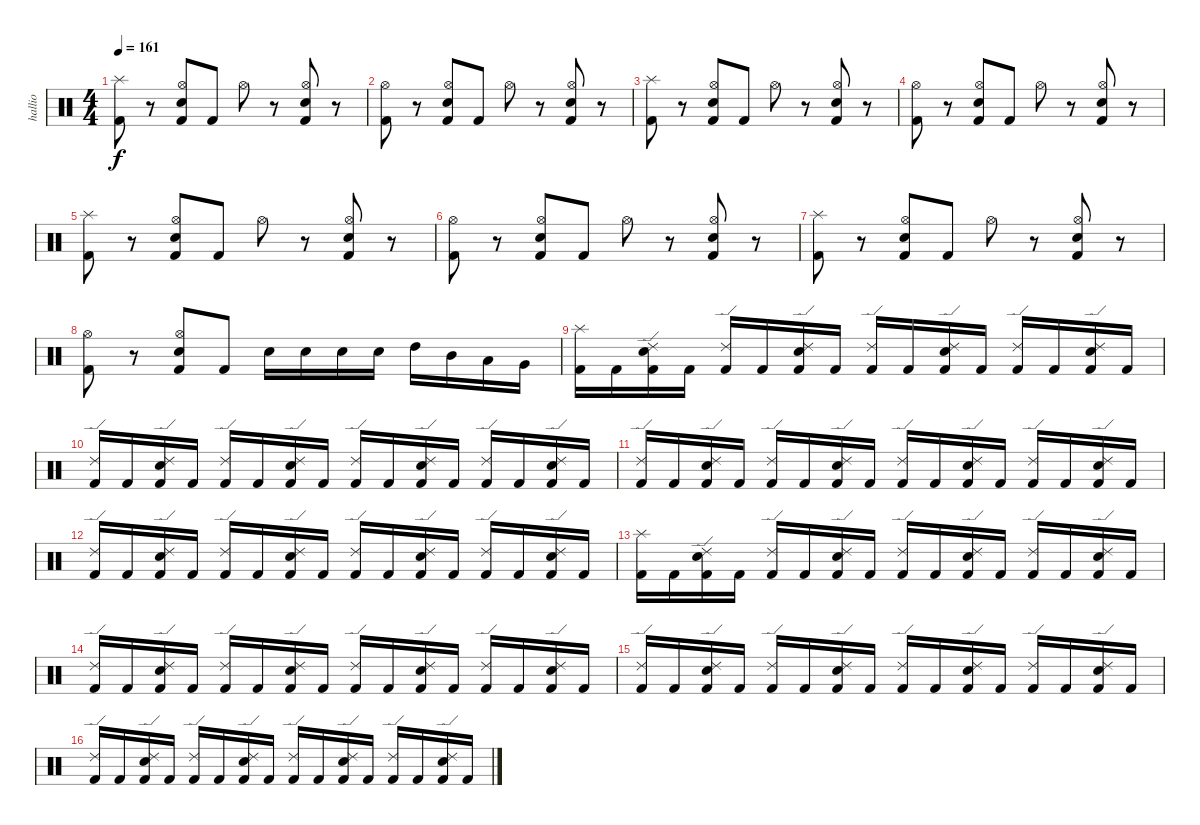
\track ("hallio" "hallio") {instrument percussion}
\staff {score}
\articulation defaults
\ts (4 4)
\tempo 161
\clef neutral
\ks c
("Kick (hit) 2" "Splash (hit)").8{dy f} r.8 ("Kick (hit) 2" "Hi-Hat (open)" "Snare (hit) 2").8 "Kick (hit) 2".8 "Hi-Hat (open)".8 r.8 ("Kick (hit) 2" "Hi-Hat (open)" "Snare (hit) 2").8 r.8 |
("Kick (hit) 2" "Hi-Hat (open)").8 r.8 ("Kick (hit) 2" "Hi-Hat (open)" "Snare (hit) 2").8 "Kick (hit) 2".8 "Hi-Hat (open)".8 r.8 ("Kick (hit) 2" "Hi-Hat (open)" "Snare (hit) 2").8 r.8 |
("Kick (hit) 2" "Splash (hit)").8 r.8 ("Kick (hit) 2" "Hi-Hat (open)" "Snare (hit) 2").8 "Kick (hit) 2".8 "Hi-Hat (open)".8 r.8 ("Kick (hit) 2" "Hi-Hat (open)" "Snare (hit) 2").8 r.8 |
("Kick (hit) 2" "Hi-Hat (open)").8 r.8 ("Kick (hit) 2" "Hi-Hat (open)" "Snare (hit) 2").8 "Kick (hit) 2".8 "Hi-Hat (open)".8 r.8 ("Kick (hit) 2" "Hi-Hat (open)" "Snare (hit) 2").8 r.8 |
("Kick (hit) 2" "Splash (hit)").8 r.8 ("Kick (hit) 2" "Hi-Hat (open)" "Snare (hit) 2").8 "Kick (hit) 2".8 "Hi-Hat (open)".8 r.8 ("Kick (hit) 2" "Hi-Hat (open)" "Snare (hit) 2").8 r.8 |
("Kick (hit) 2" "Hi-Hat (open)").8 r.8 ("Kick (hit) 2" "Hi-Hat (open)" "Snare (hit) 2").8 "Kick (hit) 2".8 "Hi-Hat (open)".8 r.8 ("Kick (hit) 2" "Hi-Hat (open)" "Snare (hit) 2").8 r.8 |
("Kick (hit) 2" "Splash (hit)").8 r.8 ("Kick (hit) 2" "Hi-Hat (open)" "Snare (hit) 2").8 "Kick (hit) 2".8 "Hi-Hat (open)".8 r.8 ("Kick (hit) 2" "Hi-Hat (open)" "Snare (hit) 2").8 r.8 |
("Kick (hit) 2" "Hi-Hat (open)").8 r.8 ("Kick (hit) 2" "Hi-Hat (open)" "Snare (hit) 2").8 "Kick (hit) 2".8 "Snare (hit) 2".16 "Snare (hit) 2".16 "Snare (hit) 2".16 "Snare (hit) 2".16 "High Tom (hit)".16 "Mid Tom (hit)".16 "Low Tom (hit)".16 "Very Low Tom (hit)".16 |
("Kick (hit) 2" "Splash (hit)").16 "Kick (hit) 2".16 ("Kick (hit) 2" "Snare (hit) 2" "Ride (edge) 2").16 "Kick (hit) 2".16 ("Kick (hit) 2" "Ride (edge) 2").16 "Kick (hit) 2".16 ("Kick (hit) 2" "Snare (hit) 2" "Ride (edge) 2").16 "Kick (hit) 2".16 ("Kick (hit) 2" "Ride (edge) 2").16 "Kick (hit) 2".16 ("Kick (hit) 2" "Snare (hit) 2" "Ride (edge) 2").16 "Kick (hit) 2".16 ("Kick (hit) 2" "Ride (edge) 2").16 "Kick (hit) 2".16 ("Kick (hit) 2" "Snare (hit) 2" "Ride (edge) 2").16 "Kick (hit) 2".16 |
("Kick (hit) 2" "Ride (edge) 2").16 "Kick (hit) 2".16 ("Kick (hit) 2" "Snare (hit) 2" "Ride (edge) 2").16 "Kick (hit) 2".16 ("Kick (hit) 2" "Ride (edge) 2").16 "Kick (hit) 2".16 ("Kick (hit) 2" "Snare (hit) 2" "Ride (edge) 2").16 "Kick (hit) 2".16 ("Kick (hit) 2" "Ride (edge) 2").16 "Kick (hit) 2".16 ("Kick (hit) 2" "Snare (hit) 2" "Ride (edge) 2").16 "Kick (hit) 2".16 ("Kick (hit) 2" "Ride (edge) 2").16 "Kick (hit) 2".16 ("Kick (hit) 2" "Snare (hit) 2" "Ride (edge) 2").16 "Kick (hit) 2".16 |
("Kick (hit) 2" "Ride (edge) 2").16 "Kick (hit) 2".16 ("Kick (hit) 2" "Snare (hit) 2" "Ride (edge) 2").16 "Kick (hit) 2".16 ("Kick (hit) 2" "Ride (edge) 2").16 "Kick (hit) 2".16 ("Kick (hit) 2" "Snare (hit) 2" "Ride (edge) 2").16 "Kick (hit) 2".16 ("Kick (hit) 2" "Ride (edge) 2").16 "Kick (hit) 2".16 ("Kick (hit) 2" "Snare (hit) 2" "Ride (edge) 2").16 "Kick (hit) 2".16 ("Kick (hit) 2" "Ride (edge) 2").16 "Kick (hit) 2".16 ("Kick (hit) 2" "Snare (hit) 2" "Ride (edge) 2").16 "Kick (hit) 2".16 |
("Kick (hit) 2" "Ride (edge) 2").16 "Kick (hit) 2".16 ("Kick (hit) 2" "Snare (hit) 2" "Ride (edge) 2").16 "Kick (hit) 2".16 ("Kick (hit) 2" "Ride (edge) 2").16 "Kick (hit) 2".16 ("Kick (hit) 2" "Snare (hit) 2" "Ride (edge) 2").16 "Kick (hit) 2".16 ("Kick (hit) 2" "Ride (edge) 2").16 "Kick (hit) 2".16 ("Kick (hit) 2" "Snare (hit) 2" "Ride (edge) 2").16 "Kick (hit) 2".16 ("Kick (hit) 2" "Ride (edge) 2").16 "Kick (hit) 2".16 ("Kick (hit) 2" "Snare (hit) 2" "Ride (edge) 2").16 "Kick (hit) 2".16 |
("Kick (hit) 2" "Splash (hit)").16 "Kick (hit) 2".16 ("Kick (hit) 2" "Snare (hit) 2" "Ride (edge) 2").16 "Kick (hit) 2".16 ("Kick (hit) 2" "Ride (edge) 2").16 "Kick (hit) 2".16 ("Kick (hit) 2" "Snare (hit) 2" "Ride (edge) 2").16 "Kick (hit) 2".16 ("Kick (hit) 2" "Ride (edge) 2").16 "Kick (hit) 2".16 ("Kick (hit) 2" "Snare (hit) 2" "Ride (edge) 2").16 "Kick (hit) 2".16 ("Kick (hit) 2" "Ride (edge) 2").16 "Kick (hit) 2".16 ("Kick (hit) 2" "Snare (hit) 2" "Ride (edge) 2").16 "Kick (hit) 2".16 |
("Kick (hit) 2" "Ride (edge) 2").16 "Kick (hit) 2".16 ("Kick (hit) 2" "Snare (hit) 2" "Ride (edge) 2").16 "Kick (hit) 2".16 ("Kick (hit) 2" "Ride (edge) 2").16 "Kick (hit) 2".16 ("Kick (hit) 2" "Snare (hit) 2" "Ride (edge) 2").16 "Kick (hit) 2".16 ("Kick (hit) 2" "Ride (edge) 2").16 "Kick (hit) 2".16 ("Kick (hit) 2" "Snare (hit) 2" "Ride (edge) 2").16 "Kick (hit) 2".16 ("Kick (hit) 2" "Ride (edge) 2").16 "Kick (hit) 2".16 ("Kick (hit) 2" "Snare (hit) 2" "Ride (edge) 2").16 "Kick (hit) 2".16 |
("Kick (hit) 2" "Ride (edge) 2").16 "Kick (hit) 2".16 ("Kick (hit) 2" "Snare (hit) 2" "Ride (edge) 2").16 "Kick (hit) 2".16 ("Kick (hit) 2" "Ride (edge) 2").16 "Kick (hit) 2".16 ("Kick (hit) 2" "Snare (hit) 2" "Ride (edge) 2").16 "Kick (hit) 2".16 ("Kick (hit) 2" "Ride (edge) 2").16 "Kick (hit) 2".16 ("Kick (hit) 2" "Snare (hit) 2" "Ride (edge) 2").16 "Kick (hit) 2".16 ("Kick (hit) 2" "Ride (edge) 2").16 "Kick (hit) 2".16 ("Kick (hit) 2" "Snare (hit) 2" "Ride (edge) 2").16 "Kick (hit) 2".16 |
("Kick (hit) 2" "Ride (edge) 2").16 "Kick (hit) 2".16 ("Kick (hit) 2" "Snare (hit) 2" "Ride (edge) 2").16 "Kick (hit) 2".16 ("Kick (hit) 2" "Ride (edge) 2").16 "Kick (hit) 2".16 ("Kick (hit) 2" "Snare (hit) 2" "Ride (edge) 2").16 "Kick (hit) 2".16 ("Kick (hit) 2" "Ride (edge) 2").16 "Kick (hit) 2".16 ("Kick (hit) 2" "Snare (hit) 2" "Ride (edge) 2").16 "Kick (hit) 2".16 ("Kick (hit) 2" "Ride (edge) 2").16 "Kick (hit) 2".16 ("Kick (hit) 2" "Snare (hit) 2" "Ride (edge) 2").16 "Kick (hit) 2".16
